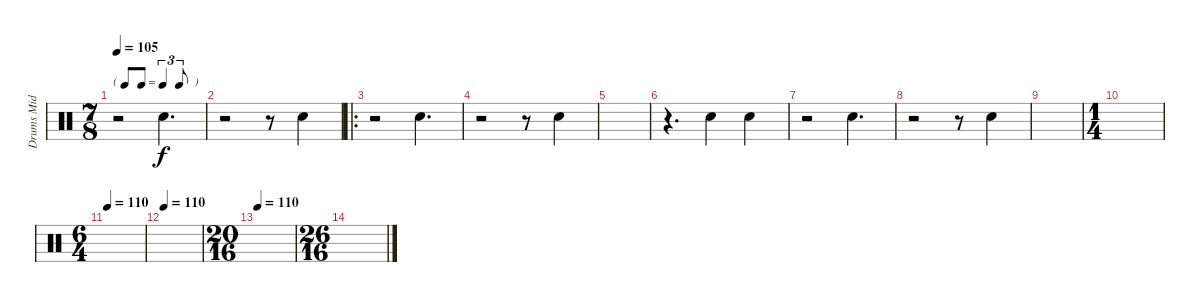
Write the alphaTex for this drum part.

\track ("Drums Mid" "Drums Mid") {instrument percussion}
\staff {score}
\articulation defaults
\ts (7 8)
\tf triplet8th
\tempo 105
\clef neutral
\ks c
r.2{dy f} "Snare (hit) 2".4{d} |
r.2 r.8 "Snare (hit) 2".4 |
\ro
r.2 "Snare (hit) 2".4{d} |
r.2 r.8 "Snare (hit) 2".4 |
|
r.4{d} "Electric Snare (hit)".4 "Electric Snare (hit)".4 |
r.2 "Snare (hit) 2".4{d} |
r.2 r.8 "Snare (hit) 2".4 |
|
\ts (1 4)
|
\ts (6 4)
\tempo 110
|
\tempo 110
|
\ts (20 16)
\tempo 110
|
\ts (26 16)
